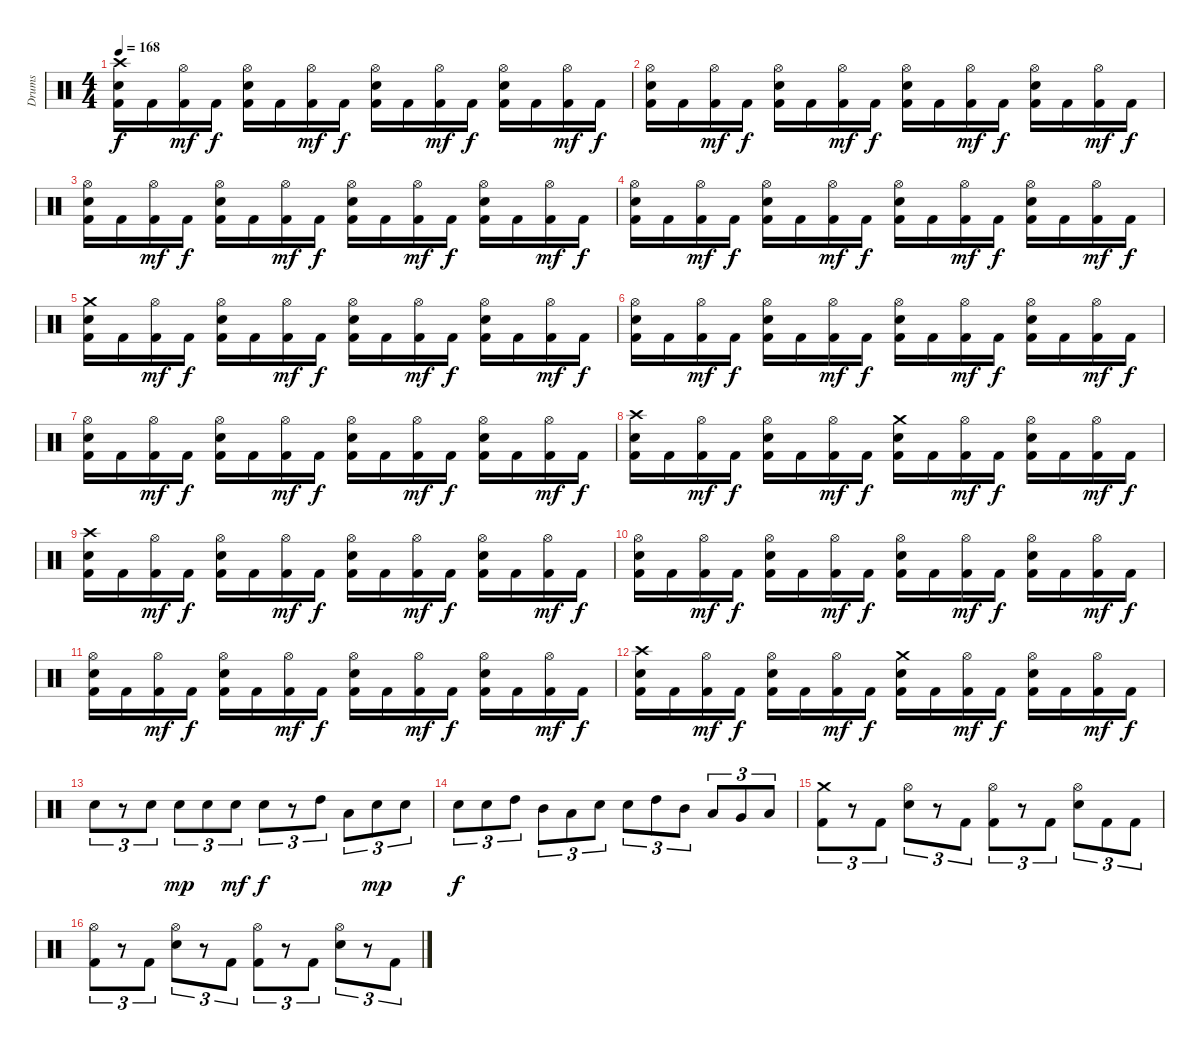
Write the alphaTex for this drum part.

\track ("Drums" "Drums") {instrument percussion}
\staff {score}
\articulation defaults
\ts (4 4)
\tempo 168
\clef neutral
\ks c
("Kick (hit) 2" "Electric Snare (hit)" "Crash high (hit)").16{dy f} "Kick (hit) 2".16 ("Kick (hit) 2" "Hi-Hat (open)").16{dy mf} "Kick (hit) 2".16{dy f} ("Kick (hit) 2" "Electric Snare (hit)" "Hi-Hat (open)").16 "Kick (hit) 2".16 ("Kick (hit) 2" "Hi-Hat (open)").16{dy mf} "Kick (hit) 2".16{dy f} ("Kick (hit) 2" "Electric Snare (hit)" "Hi-Hat (open)").16 "Kick (hit) 2".16 ("Kick (hit) 2" "Hi-Hat (open)").16{dy mf} "Kick (hit) 2".16{dy f} ("Kick (hit) 2" "Electric Snare (hit)" "Hi-Hat (open)").16 "Kick (hit) 2".16 ("Kick (hit) 2" "Hi-Hat (open)").16{dy mf} "Kick (hit) 2".16{dy f} |
("Kick (hit) 2" "Electric Snare (hit)" "Hi-Hat (open)").16 "Kick (hit) 2".16 ("Kick (hit) 2" "Hi-Hat (open)").16{dy mf} "Kick (hit) 2".16{dy f} ("Kick (hit) 2" "Electric Snare (hit)" "Hi-Hat (open)").16 "Kick (hit) 2".16 ("Kick (hit) 2" "Hi-Hat (open)").16{dy mf} "Kick (hit) 2".16{dy f} ("Kick (hit) 2" "Electric Snare (hit)" "Hi-Hat (open)").16 "Kick (hit) 2".16 ("Kick (hit) 2" "Hi-Hat (open)").16{dy mf} "Kick (hit) 2".16{dy f} ("Kick (hit) 2" "Electric Snare (hit)" "Hi-Hat (open)").16 "Kick (hit) 2".16 ("Kick (hit) 2" "Hi-Hat (open)").16{dy mf} "Kick (hit) 2".16{dy f} |
("Kick (hit) 2" "Electric Snare (hit)" "Hi-Hat (open)").16 "Kick (hit) 2".16 ("Kick (hit) 2" "Hi-Hat (open)").16{dy mf} "Kick (hit) 2".16{dy f} ("Kick (hit) 2" "Electric Snare (hit)" "Hi-Hat (open)").16 "Kick (hit) 2".16 ("Kick (hit) 2" "Hi-Hat (open)").16{dy mf} "Kick (hit) 2".16{dy f} ("Kick (hit) 2" "Electric Snare (hit)" "Hi-Hat (open)").16 "Kick (hit) 2".16 ("Kick (hit) 2" "Hi-Hat (open)").16{dy mf} "Kick (hit) 2".16{dy f} ("Kick (hit) 2" "Electric Snare (hit)" "Hi-Hat (open)").16 "Kick (hit) 2".16 ("Kick (hit) 2" "Hi-Hat (open)").16{dy mf} "Kick (hit) 2".16{dy f} |
("Kick (hit) 2" "Electric Snare (hit)" "Hi-Hat (open)").16 "Kick (hit) 2".16 ("Kick (hit) 2" "Hi-Hat (open)").16{dy mf} "Kick (hit) 2".16{dy f} ("Kick (hit) 2" "Electric Snare (hit)" "Hi-Hat (open)").16 "Kick (hit) 2".16 ("Kick (hit) 2" "Hi-Hat (open)").16{dy mf} "Kick (hit) 2".16{dy f} ("Kick (hit) 2" "Electric Snare (hit)" "Hi-Hat (open)").16 "Kick (hit) 2".16 ("Kick (hit) 2" "Hi-Hat (open)").16{dy mf} "Kick (hit) 2".16{dy f} ("Kick (hit) 2" "Electric Snare (hit)" "Hi-Hat (open)").16 "Kick (hit) 2".16 ("Kick (hit) 2" "Hi-Hat (open)").16{dy mf} "Kick (hit) 2".16{dy f} |
\section ("" "")
("Kick (hit) 2" "Electric Snare (hit)" "Crash medium (hit)").16 "Kick (hit) 2".16 ("Kick (hit) 2" "Hi-Hat (open)").16{dy mf} "Kick (hit) 2".16{dy f} ("Kick (hit) 2" "Electric Snare (hit)" "Hi-Hat (open)").16 "Kick (hit) 2".16 ("Kick (hit) 2" "Hi-Hat (open)").16{dy mf} "Kick (hit) 2".16{dy f} ("Kick (hit) 2" "Electric Snare (hit)" "Hi-Hat (open)").16 "Kick (hit) 2".16 ("Kick (hit) 2" "Hi-Hat (open)").16{dy mf} "Kick (hit) 2".16{dy f} ("Kick (hit) 2" "Electric Snare (hit)" "Hi-Hat (open)").16 "Kick (hit) 2".16 ("Kick (hit) 2" "Hi-Hat (open)").16{dy mf} "Kick (hit) 2".16{dy f} |
("Kick (hit) 2" "Electric Snare (hit)" "Hi-Hat (open)").16 "Kick (hit) 2".16 ("Kick (hit) 2" "Hi-Hat (open)").16{dy mf} "Kick (hit) 2".16{dy f} ("Kick (hit) 2" "Electric Snare (hit)" "Hi-Hat (open)").16 "Kick (hit) 2".16 ("Kick (hit) 2" "Hi-Hat (open)").16{dy mf} "Kick (hit) 2".16{dy f} ("Kick (hit) 2" "Electric Snare (hit)" "Hi-Hat (open)").16 "Kick (hit) 2".16 ("Kick (hit) 2" "Hi-Hat (open)").16{dy mf} "Kick (hit) 2".16{dy f} ("Kick (hit) 2" "Electric Snare (hit)" "Hi-Hat (open)").16 "Kick (hit) 2".16 ("Kick (hit) 2" "Hi-Hat (open)").16{dy mf} "Kick (hit) 2".16{dy f} |
("Kick (hit) 2" "Electric Snare (hit)" "Hi-Hat (open)").16 "Kick (hit) 2".16 ("Kick (hit) 2" "Hi-Hat (open)").16{dy mf} "Kick (hit) 2".16{dy f} ("Kick (hit) 2" "Electric Snare (hit)" "Hi-Hat (open)").16 "Kick (hit) 2".16 ("Kick (hit) 2" "Hi-Hat (open)").16{dy mf} "Kick (hit) 2".16{dy f} ("Kick (hit) 2" "Electric Snare (hit)" "Hi-Hat (open)").16 "Kick (hit) 2".16 ("Kick (hit) 2" "Hi-Hat (open)").16{dy mf} "Kick (hit) 2".16{dy f} ("Kick (hit) 2" "Electric Snare (hit)" "Hi-Hat (open)").16 "Kick (hit) 2".16 ("Kick (hit) 2" "Hi-Hat (open)").16{dy mf} "Kick (hit) 2".16{dy f} |
("Kick (hit) 2" "Electric Snare (hit)" "Crash high (hit)").16 "Kick (hit) 2".16 ("Kick (hit) 2" "Hi-Hat (open)").16{dy mf} "Kick (hit) 2".16{dy f} ("Kick (hit) 2" "Electric Snare (hit)" "Hi-Hat (open)").16 "Kick (hit) 2".16 ("Kick (hit) 2" "Hi-Hat (open)").16{dy mf} "Kick (hit) 2".16{dy f} ("Kick (hit) 2" "Electric Snare (hit)" "Crash medium (hit)").16 "Kick (hit) 2".16 ("Kick (hit) 2" "Hi-Hat (open)").16{dy mf} "Kick (hit) 2".16{dy f} ("Kick (hit) 2" "Electric Snare (hit)" "Hi-Hat (open)").16 "Kick (hit) 2".16 ("Kick (hit) 2" "Hi-Hat (open)").16{dy mf} "Kick (hit) 2".16{dy f} |
("Kick (hit) 2" "Electric Snare (hit)" "Crash high (hit)").16 "Kick (hit) 2".16 ("Kick (hit) 2" "Hi-Hat (open)").16{dy mf} "Kick (hit) 2".16{dy f} ("Kick (hit) 2" "Electric Snare (hit)" "Hi-Hat (open)").16 "Kick (hit) 2".16 ("Kick (hit) 2" "Hi-Hat (open)").16{dy mf} "Kick (hit) 2".16{dy f} ("Kick (hit) 2" "Electric Snare (hit)" "Hi-Hat (open)").16 "Kick (hit) 2".16 ("Kick (hit) 2" "Hi-Hat (open)").16{dy mf} "Kick (hit) 2".16{dy f} ("Kick (hit) 2" "Electric Snare (hit)" "Hi-Hat (open)").16 "Kick (hit) 2".16 ("Kick (hit) 2" "Hi-Hat (open)").16{dy mf} "Kick (hit) 2".16{dy f} |
("Kick (hit) 2" "Electric Snare (hit)" "Hi-Hat (open)").16 "Kick (hit) 2".16 ("Kick (hit) 2" "Hi-Hat (open)").16{dy mf} "Kick (hit) 2".16{dy f} ("Kick (hit) 2" "Electric Snare (hit)" "Hi-Hat (open)").16 "Kick (hit) 2".16 ("Kick (hit) 2" "Hi-Hat (open)").16{dy mf} "Kick (hit) 2".16{dy f} ("Kick (hit) 2" "Electric Snare (hit)" "Hi-Hat (open)").16 "Kick (hit) 2".16 ("Kick (hit) 2" "Hi-Hat (open)").16{dy mf} "Kick (hit) 2".16{dy f} ("Kick (hit) 2" "Electric Snare (hit)" "Hi-Hat (open)").16 "Kick (hit) 2".16 ("Kick (hit) 2" "Hi-Hat (open)").16{dy mf} "Kick (hit) 2".16{dy f} |
("Kick (hit) 2" "Electric Snare (hit)" "Hi-Hat (open)").16 "Kick (hit) 2".16 ("Kick (hit) 2" "Hi-Hat (open)").16{dy mf} "Kick (hit) 2".16{dy f} ("Kick (hit) 2" "Electric Snare (hit)" "Hi-Hat (open)").16 "Kick (hit) 2".16 ("Kick (hit) 2" "Hi-Hat (open)").16{dy mf} "Kick (hit) 2".16{dy f} ("Kick (hit) 2" "Electric Snare (hit)" "Hi-Hat (open)").16 "Kick (hit) 2".16 ("Kick (hit) 2" "Hi-Hat (open)").16{dy mf} "Kick (hit) 2".16{dy f} ("Kick (hit) 2" "Electric Snare (hit)" "Hi-Hat (open)").16 "Kick (hit) 2".16 ("Kick (hit) 2" "Hi-Hat (open)").16{dy mf} "Kick (hit) 2".16{dy f} |
("Kick (hit) 2" "Electric Snare (hit)" "Crash high (hit)").16 "Kick (hit) 2".16 ("Kick (hit) 2" "Hi-Hat (open)").16{dy mf} "Kick (hit) 2".16{dy f} ("Kick (hit) 2" "Electric Snare (hit)" "Hi-Hat (open)").16 "Kick (hit) 2".16 ("Kick (hit) 2" "Hi-Hat (open)").16{dy mf} "Kick (hit) 2".16{dy f} ("Kick (hit) 2" "Electric Snare (hit)" "Crash medium (hit)").16 "Kick (hit) 2".16 ("Kick (hit) 2" "Hi-Hat (open)").16{dy mf} "Kick (hit) 2".16{dy f} ("Kick (hit) 2" "Electric Snare (hit)" "Hi-Hat (open)").16 "Kick (hit) 2".16 ("Kick (hit) 2" "Hi-Hat (open)").16{dy mf} "Kick (hit) 2".16{dy f} |
"Electric Snare (hit)".8{tu (3 2)} r.8{tu (3 2)} "Electric Snare (hit)".8{tu (3 2)} "Electric Snare (hit)".8{tu (3 2) dy mp} "Electric Snare (hit)".8{tu (3 2)} "Electric Snare (hit)".8{tu (3 2) dy mf} "Electric Snare (hit)".8{tu (3 2) dy f} r.8{tu (3 2)} "High Tom (hit)".8{tu (3 2)} "Low Tom (hit)".8{tu (3 2)} "Electric Snare (hit)".8{tu (3 2) dy mp} "Electric Snare (hit)".8{tu (3 2)} |
"Electric Snare (hit)".8{tu (3 2) dy f} "Electric Snare (hit)".8{tu (3 2)} "High Tom (hit)".8{tu (3 2)} "Mid Tom (hit)".8{tu (3 2)} "Low Tom (hit)".8{tu (3 2)} "Electric Snare (hit)".8{tu (3 2)} "Electric Snare (hit)".8{tu (3 2)} "High Tom (hit)".8{tu (3 2)} "Mid Tom (hit)".8{tu (3 2)} "Low Tom (hit)".8{tu (3 2)} "Very Low Tom (hit)".8{tu (3 2)} "Low Floor Tom (hit)".8{tu (3 2)} |
\section ("" "")
("Kick (hit) 2" "Crash medium (hit)").8{tu (3 2)} r.8{tu (3 2)} "Kick (hit) 2".8{tu (3 2)} ("Electric Snare (hit)" "Hi-Hat (open)").8{tu (3 2)} r.8{tu (3 2)} "Kick (hit) 2".8{tu (3 2)} ("Kick (hit) 2" "Hi-Hat (open)").8{tu (3 2)} r.8{tu (3 2)} "Kick (hit) 2".8{tu (3 2)} ("Electric Snare (hit)" "Hi-Hat (open)").8{tu (3 2)} "Kick (hit) 2".8{tu (3 2)} "Kick (hit) 2".8{tu (3 2)} |
("Kick (hit) 2" "Hi-Hat (open)").8{tu (3 2)} r.8{tu (3 2)} "Kick (hit) 2".8{tu (3 2)} ("Electric Snare (hit)" "Hi-Hat (open)").8{tu (3 2)} r.8{tu (3 2)} "Kick (hit) 2".8{tu (3 2)} ("Kick (hit) 2" "Hi-Hat (open)").8{tu (3 2)} r.8{tu (3 2)} "Kick (hit) 2".8{tu (3 2)} ("Electric Snare (hit)" "Hi-Hat (open)").8{tu (3 2)} r.8{tu (3 2)} "Kick (hit) 2".8{tu (3 2)}
